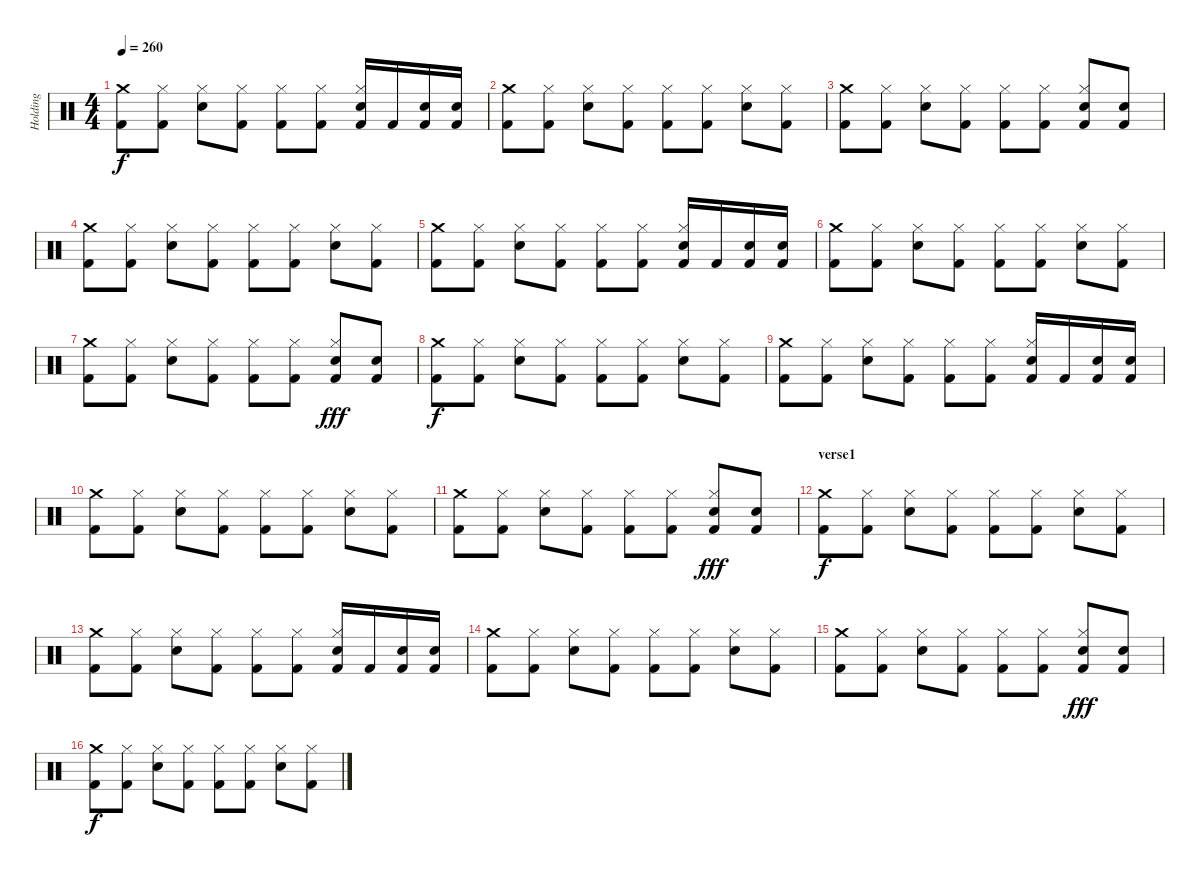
\track ("Holding" "Holding") {instrument percussion}
\staff {score}
\articulation defaults
\ts (4 4)
\tempo 260
\clef neutral
\ks c
("Crash medium (hit)" "Kick (hit) 2").8{dy f} ("Hi-Hat (closed)" "Kick (hit) 2").8 ("Hi-Hat (closed)" "Electric Snare (hit)").8 ("Hi-Hat (closed)" "Kick (hit) 2").8 ("Hi-Hat (closed)" "Kick (hit) 2").8 ("Hi-Hat (closed)" "Kick (hit) 2").8 ("Hi-Hat (closed)" "Electric Snare (hit)" "Kick (hit) 2").16 "Kick (hit) 2".16 ("Electric Snare (hit)" "Kick (hit) 2").16 ("Electric Snare (hit)" "Kick (hit) 2").16 |
("Crash medium (hit)" "Kick (hit) 2").8 ("Hi-Hat (closed)" "Kick (hit) 2").8 ("Hi-Hat (closed)" "Electric Snare (hit)").8 ("Hi-Hat (closed)" "Kick (hit) 2").8 ("Hi-Hat (closed)" "Kick (hit) 2").8 ("Hi-Hat (closed)" "Kick (hit) 2").8 ("Hi-Hat (closed)" "Electric Snare (hit)").8 ("Hi-Hat (closed)" "Kick (hit) 2").8 |
("Crash medium (hit)" "Kick (hit) 2").8 ("Hi-Hat (closed)" "Kick (hit) 2").8 ("Hi-Hat (closed)" "Electric Snare (hit)").8 ("Hi-Hat (closed)" "Kick (hit) 2").8 ("Hi-Hat (closed)" "Kick (hit) 2").8 ("Hi-Hat (closed)" "Kick (hit) 2").8 ("Hi-Hat (closed)" "Electric Snare (hit)" "Kick (hit) 2").8 ("Electric Snare (hit)" "Kick (hit) 2").8 |
("Crash medium (hit)" "Kick (hit) 2").8 ("Hi-Hat (closed)" "Kick (hit) 2").8 ("Hi-Hat (closed)" "Electric Snare (hit)").8 ("Hi-Hat (closed)" "Kick (hit) 2").8 ("Hi-Hat (closed)" "Kick (hit) 2").8 ("Hi-Hat (closed)" "Kick (hit) 2").8 ("Hi-Hat (closed)" "Electric Snare (hit)").8 ("Hi-Hat (closed)" "Kick (hit) 2").8 |
("Crash medium (hit)" "Kick (hit) 2").8 ("Hi-Hat (closed)" "Kick (hit) 2").8 ("Hi-Hat (closed)" "Electric Snare (hit)").8 ("Hi-Hat (closed)" "Kick (hit) 2").8 ("Hi-Hat (closed)" "Kick (hit) 2").8 ("Hi-Hat (closed)" "Kick (hit) 2").8 ("Hi-Hat (closed)" "Electric Snare (hit)" "Kick (hit) 2").16 "Kick (hit) 2".16 ("Electric Snare (hit)" "Kick (hit) 2").16 ("Electric Snare (hit)" "Kick (hit) 2").16 |
("Crash medium (hit)" "Kick (hit) 2").8 ("Hi-Hat (closed)" "Kick (hit) 2").8 ("Hi-Hat (closed)" "Electric Snare (hit)").8 ("Hi-Hat (closed)" "Kick (hit) 2").8 ("Hi-Hat (closed)" "Kick (hit) 2").8 ("Hi-Hat (closed)" "Kick (hit) 2").8 ("Hi-Hat (closed)" "Electric Snare (hit)").8 ("Hi-Hat (closed)" "Kick (hit) 2").8 |
("Crash medium (hit)" "Kick (hit) 2").8 ("Hi-Hat (closed)" "Kick (hit) 2").8 ("Hi-Hat (closed)" "Electric Snare (hit)").8 ("Hi-Hat (closed)" "Kick (hit) 2").8 ("Hi-Hat (closed)" "Kick (hit) 2").8 ("Hi-Hat (closed)" "Kick (hit) 2").8 ("Hi-Hat (closed)" "Electric Snare (hit)" "Kick (hit) 2").8{dy fff} ("Electric Snare (hit)" "Kick (hit) 2").8 |
("Crash medium (hit)" "Kick (hit) 2").8{dy f} ("Hi-Hat (closed)" "Kick (hit) 2").8 ("Hi-Hat (closed)" "Electric Snare (hit)").8 ("Hi-Hat (closed)" "Kick (hit) 2").8 ("Hi-Hat (closed)" "Kick (hit) 2").8 ("Hi-Hat (closed)" "Kick (hit) 2").8 ("Hi-Hat (closed)" "Electric Snare (hit)").8 ("Hi-Hat (closed)" "Kick (hit) 2").8 |
("Crash medium (hit)" "Kick (hit) 2").8 ("Hi-Hat (closed)" "Kick (hit) 2").8 ("Hi-Hat (closed)" "Electric Snare (hit)").8 ("Hi-Hat (closed)" "Kick (hit) 2").8 ("Hi-Hat (closed)" "Kick (hit) 2").8 ("Hi-Hat (closed)" "Kick (hit) 2").8 ("Hi-Hat (closed)" "Electric Snare (hit)" "Kick (hit) 2").16 "Kick (hit) 2".16 ("Electric Snare (hit)" "Kick (hit) 2").16 ("Electric Snare (hit)" "Kick (hit) 2").16 |
("Crash medium (hit)" "Kick (hit) 2").8 ("Hi-Hat (closed)" "Kick (hit) 2").8 ("Hi-Hat (closed)" "Electric Snare (hit)").8 ("Hi-Hat (closed)" "Kick (hit) 2").8 ("Hi-Hat (closed)" "Kick (hit) 2").8 ("Hi-Hat (closed)" "Kick (hit) 2").8 ("Hi-Hat (closed)" "Electric Snare (hit)").8 ("Hi-Hat (closed)" "Kick (hit) 2").8 |
("Crash medium (hit)" "Kick (hit) 2").8 ("Hi-Hat (closed)" "Kick (hit) 2").8 ("Hi-Hat (closed)" "Electric Snare (hit)").8 ("Hi-Hat (closed)" "Kick (hit) 2").8 ("Hi-Hat (closed)" "Kick (hit) 2").8 ("Hi-Hat (closed)" "Kick (hit) 2").8 ("Hi-Hat (closed)" "Electric Snare (hit)" "Kick (hit) 2").8{dy fff} ("Electric Snare (hit)" "Kick (hit) 2").8 |
\section ("" "verse1")
("Crash medium (hit)" "Kick (hit) 2").8{dy f} ("Hi-Hat (closed)" "Kick (hit) 2").8 ("Hi-Hat (closed)" "Electric Snare (hit)").8 ("Hi-Hat (closed)" "Kick (hit) 2").8 ("Hi-Hat (closed)" "Kick (hit) 2").8 ("Hi-Hat (closed)" "Kick (hit) 2").8 ("Hi-Hat (closed)" "Electric Snare (hit)").8 ("Hi-Hat (closed)" "Kick (hit) 2").8 |
("Crash medium (hit)" "Kick (hit) 2").8 ("Hi-Hat (closed)" "Kick (hit) 2").8 ("Hi-Hat (closed)" "Electric Snare (hit)").8 ("Hi-Hat (closed)" "Kick (hit) 2").8 ("Hi-Hat (closed)" "Kick (hit) 2").8 ("Hi-Hat (closed)" "Kick (hit) 2").8 ("Hi-Hat (closed)" "Electric Snare (hit)" "Kick (hit) 2").16 "Kick (hit) 2".16 ("Electric Snare (hit)" "Kick (hit) 2").16 ("Electric Snare (hit)" "Kick (hit) 2").16 |
("Crash medium (hit)" "Kick (hit) 2").8 ("Hi-Hat (closed)" "Kick (hit) 2").8 ("Hi-Hat (closed)" "Electric Snare (hit)").8 ("Hi-Hat (closed)" "Kick (hit) 2").8 ("Hi-Hat (closed)" "Kick (hit) 2").8 ("Hi-Hat (closed)" "Kick (hit) 2").8 ("Hi-Hat (closed)" "Electric Snare (hit)").8 ("Hi-Hat (closed)" "Kick (hit) 2").8 |
("Crash medium (hit)" "Kick (hit) 2").8 ("Hi-Hat (closed)" "Kick (hit) 2").8 ("Hi-Hat (closed)" "Electric Snare (hit)").8 ("Hi-Hat (closed)" "Kick (hit) 2").8 ("Hi-Hat (closed)" "Kick (hit) 2").8 ("Hi-Hat (closed)" "Kick (hit) 2").8 ("Hi-Hat (closed)" "Electric Snare (hit)" "Kick (hit) 2").8{dy fff} ("Electric Snare (hit)" "Kick (hit) 2").8 |
("Crash medium (hit)" "Kick (hit) 2").8{dy f} ("Hi-Hat (closed)" "Kick (hit) 2").8 ("Hi-Hat (closed)" "Electric Snare (hit)").8 ("Hi-Hat (closed)" "Kick (hit) 2").8 ("Hi-Hat (closed)" "Kick (hit) 2").8 ("Hi-Hat (closed)" "Kick (hit) 2").8 ("Hi-Hat (closed)" "Electric Snare (hit)").8 ("Hi-Hat (closed)" "Kick (hit) 2").8
